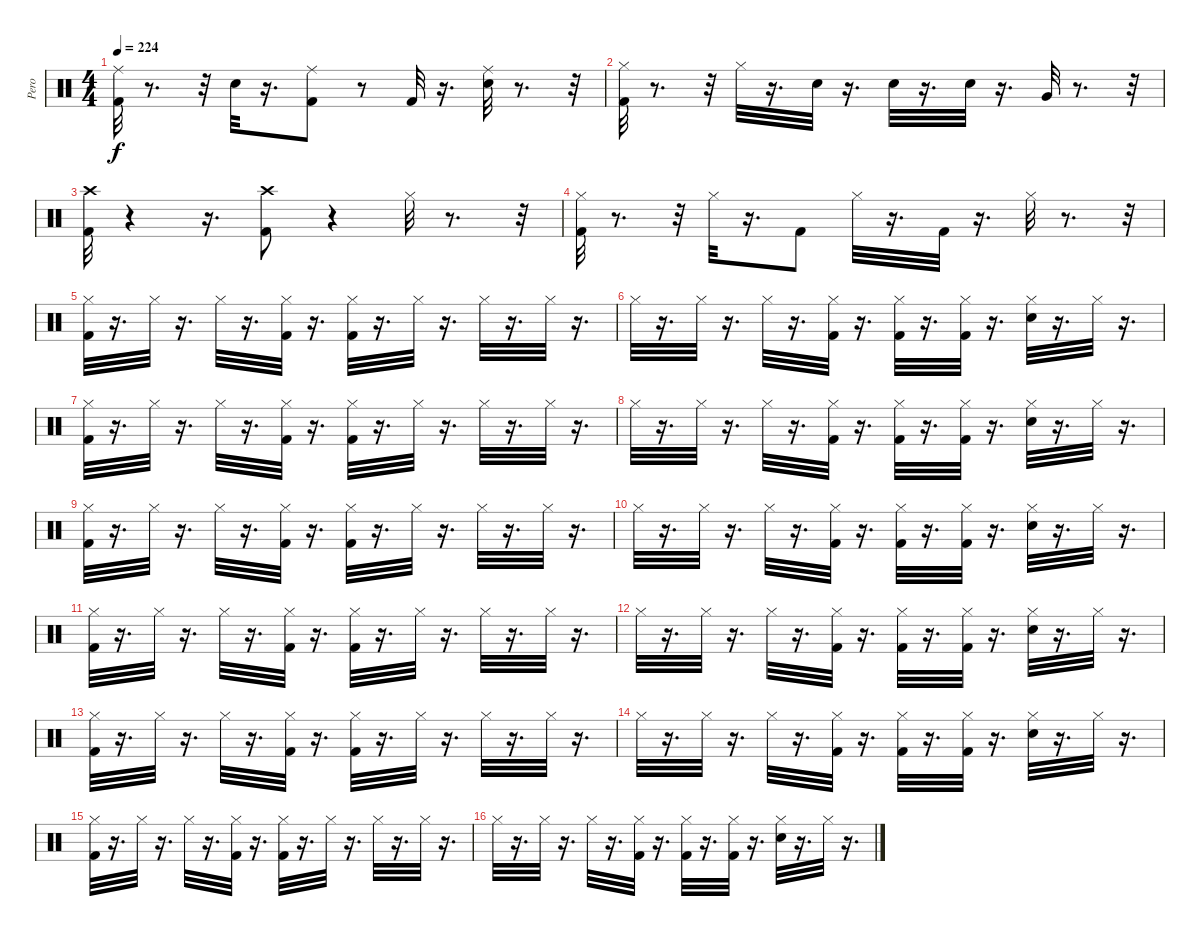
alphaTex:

\track ("Pero" "Pero") {instrument percussion}
\staff {score}
\articulation defaults
\ts (4 4)
\tempo 224
\clef neutral
\ks c
("Ride (middle)" "Kick (hit) 2").32{dy f} r.8{d} r.32 "Snare (hit) 2".32 r.16{d} ("Ride (middle)" "Kick (hit) 2").8 r.8 "Kick (hit) 2".32 r.16{d} ("Snare (hit) 2" "Ride (middle)").32 r.8{d} r.32 |
("Kick (hit) 2" "Hi-Hat (closed)").32 r.8{d} r.32 "Hi-Hat (closed)".32 r.16{d} "Snare (hit) 2".32 r.16{d} "Snare (hit) 2".32 r.16{d} "Snare (hit) 2".32 r.16{d} "Very Low Tom (hit)".32 r.8{d} r.32 |
("Crash high (hit)" "Kick (hit) 2").32 r.4 r.16{d} ("Crash high (hit)" "Kick (hit) 2").8 r.4 "Hi-Hat (closed)".32 r.8{d} r.32 |
("Hi-Hat (closed)" "Kick (hit) 2").32 r.8{d} r.32 "Hi-Hat (closed)".32 r.16{d} "Kick (hit) 2".8 "Hi-Hat (closed)".32 r.16{d} "Kick (hit) 2".32 r.16{d} "Hi-Hat (closed)".32 r.8{d} r.32 |
("Hi-Hat (closed)" "Kick (hit) 2").32 r.16{d} "Hi-Hat (closed)".32 r.16{d} "Hi-Hat (closed)".32 r.16{d} ("Hi-Hat (closed)" "Kick (hit) 2").32 r.16{d} ("Hi-Hat (closed)" "Kick (hit) 2").32 r.16{d} "Hi-Hat (closed)".32 r.16{d} "Hi-Hat (closed)".32 r.16{d} "Hi-Hat (closed)".32 r.16{d} |
"Hi-Hat (closed)".32 r.16{d} "Hi-Hat (closed)".32 r.16{d} "Hi-Hat (closed)".32 r.16{d} ("Hi-Hat (closed)" "Kick (hit) 2").32 r.16{d} ("Hi-Hat (closed)" "Kick (hit) 2").32 r.16{d} ("Hi-Hat (closed)" "Kick (hit) 2").32 r.16{d} ("Hi-Hat (closed)" "Snare (hit) 2").32 r.16{d} "Hi-Hat (closed)".32 r.16{d} |
("Hi-Hat (closed)" "Kick (hit) 2").32 r.16{d} "Hi-Hat (closed)".32 r.16{d} "Hi-Hat (closed)".32 r.16{d} ("Hi-Hat (closed)" "Kick (hit) 2").32 r.16{d} ("Hi-Hat (closed)" "Kick (hit) 2").32 r.16{d} "Hi-Hat (closed)".32 r.16{d} "Hi-Hat (closed)".32 r.16{d} "Hi-Hat (closed)".32 r.16{d} |
"Hi-Hat (closed)".32 r.16{d} "Hi-Hat (closed)".32 r.16{d} "Hi-Hat (closed)".32 r.16{d} ("Hi-Hat (closed)" "Kick (hit) 2").32 r.16{d} ("Hi-Hat (closed)" "Kick (hit) 2").32 r.16{d} ("Hi-Hat (closed)" "Kick (hit) 2").32 r.16{d} ("Hi-Hat (closed)" "Snare (hit) 2").32 r.16{d} "Hi-Hat (closed)".32 r.16{d} |
("Hi-Hat (closed)" "Kick (hit) 2").32 r.16{d} "Hi-Hat (closed)".32 r.16{d} "Hi-Hat (closed)".32 r.16{d} ("Hi-Hat (closed)" "Kick (hit) 2").32 r.16{d} ("Hi-Hat (closed)" "Kick (hit) 2").32 r.16{d} "Hi-Hat (closed)".32 r.16{d} "Hi-Hat (closed)".32 r.16{d} "Hi-Hat (closed)".32 r.16{d} |
"Hi-Hat (closed)".32 r.16{d} "Hi-Hat (closed)".32 r.16{d} "Hi-Hat (closed)".32 r.16{d} ("Hi-Hat (closed)" "Kick (hit) 2").32 r.16{d} ("Hi-Hat (closed)" "Kick (hit) 2").32 r.16{d} ("Hi-Hat (closed)" "Kick (hit) 2").32 r.16{d} ("Hi-Hat (closed)" "Snare (hit) 2").32 r.16{d} "Hi-Hat (closed)".32 r.16{d} |
("Hi-Hat (closed)" "Kick (hit) 2").32 r.16{d} "Hi-Hat (closed)".32 r.16{d} "Hi-Hat (closed)".32 r.16{d} ("Hi-Hat (closed)" "Kick (hit) 2").32 r.16{d} ("Hi-Hat (closed)" "Kick (hit) 2").32 r.16{d} "Hi-Hat (closed)".32 r.16{d} "Hi-Hat (closed)".32 r.16{d} "Hi-Hat (closed)".32 r.16{d} |
"Hi-Hat (closed)".32 r.16{d} "Hi-Hat (closed)".32 r.16{d} "Hi-Hat (closed)".32 r.16{d} ("Hi-Hat (closed)" "Kick (hit) 2").32 r.16{d} ("Hi-Hat (closed)" "Kick (hit) 2").32 r.16{d} ("Hi-Hat (closed)" "Kick (hit) 2").32 r.16{d} ("Hi-Hat (closed)" "Snare (hit) 2").32 r.16{d} "Hi-Hat (closed)".32 r.16{d} |
("Hi-Hat (closed)" "Kick (hit) 2").32 r.16{d} "Hi-Hat (closed)".32 r.16{d} "Hi-Hat (closed)".32 r.16{d} ("Hi-Hat (closed)" "Kick (hit) 2").32 r.16{d} ("Hi-Hat (closed)" "Kick (hit) 2").32 r.16{d} "Hi-Hat (closed)".32 r.16{d} "Hi-Hat (closed)".32 r.16{d} "Hi-Hat (closed)".32 r.16{d} |
"Hi-Hat (closed)".32 r.16{d} "Hi-Hat (closed)".32 r.16{d} "Hi-Hat (closed)".32 r.16{d} ("Hi-Hat (closed)" "Kick (hit) 2").32 r.16{d} ("Hi-Hat (closed)" "Kick (hit) 2").32 r.16{d} ("Hi-Hat (closed)" "Kick (hit) 2").32 r.16{d} ("Hi-Hat (closed)" "Snare (hit) 2").32 r.16{d} "Hi-Hat (closed)".32 r.16{d} |
("Hi-Hat (closed)" "Kick (hit) 2").32 r.16{d} "Hi-Hat (closed)".32 r.16{d} "Hi-Hat (closed)".32 r.16{d} ("Hi-Hat (closed)" "Kick (hit) 2").32 r.16{d} ("Hi-Hat (closed)" "Kick (hit) 2").32 r.16{d} "Hi-Hat (closed)".32 r.16{d} "Hi-Hat (closed)".32 r.16{d} "Hi-Hat (closed)".32 r.16{d} |
"Hi-Hat (closed)".32 r.16{d} "Hi-Hat (closed)".32 r.16{d} "Hi-Hat (closed)".32 r.16{d} ("Hi-Hat (closed)" "Kick (hit) 2").32 r.16{d} ("Hi-Hat (closed)" "Kick (hit) 2").32 r.16{d} ("Hi-Hat (closed)" "Kick (hit) 2").32 r.16{d} ("Hi-Hat (closed)" "Snare (hit) 2").32 r.16{d} "Hi-Hat (closed)".32 r.16{d}
